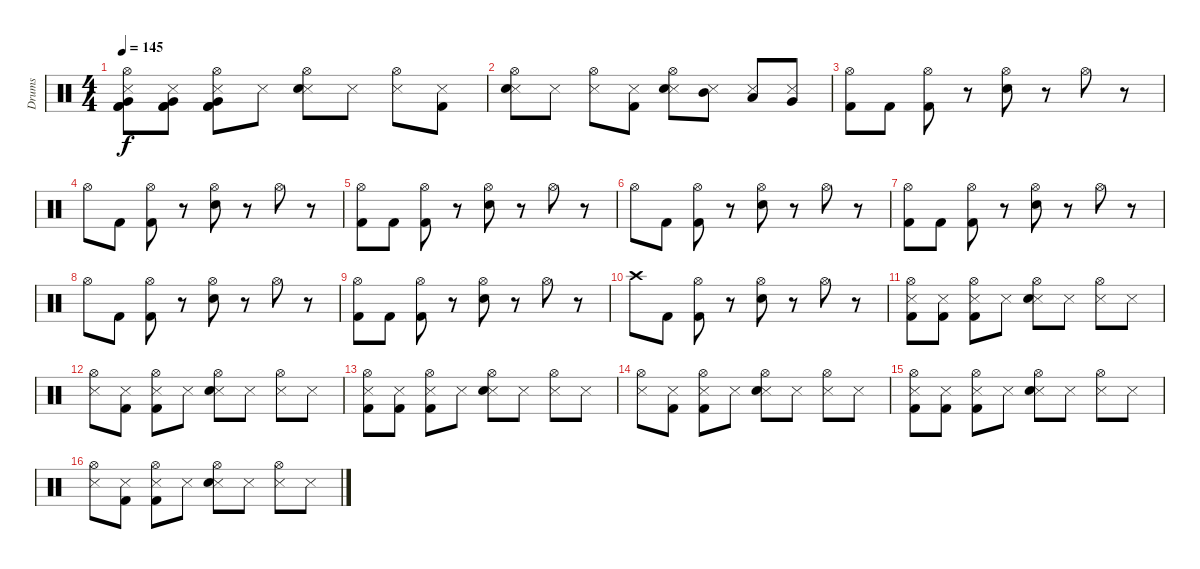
\track ("Drums" "Drums") {instrument percussion}
\staff {score}
\articulation defaults
\ts (4 4)
\tempo 145
\clef neutral
\ks c
("Hi-Hat (open)" "Snare (side stick) 3" "Very Low Tom (hit)" "Kick (hit) 2" "Kick (hit) 2").8{dy f} ("Snare (side stick) 3" "Very Low Tom (hit)" "Kick (hit) 2" "Kick (hit) 2").8 ("Hi-Hat (open)" "Snare (side stick) 3" "Very Low Tom (hit)" "Kick (hit) 2" "Kick (hit) 2").8 "Snare (side stick) 3".8 ("Hi-Hat (open)" "Snare (side stick) 3" "Electric Snare (hit)").8 "Snare (side stick) 3".8 ("Hi-Hat (open)" "Snare (side stick) 3").8 ("Snare (side stick) 3" "Kick (hit) 2").8 |
("Hi-Hat (open)" "Snare (side stick) 3" "Electric Snare (hit)").8 "Snare (side stick) 3".8 ("Hi-Hat (open)" "Snare (side stick) 3").8 ("Snare (side stick) 3" "Kick (hit) 2").8 ("Hi-Hat (open)" "Snare (side stick) 3" "Electric Snare (hit)").8 ("Snare (side stick) 3" "Mid Tom (hit)").8 ("Snare (side stick) 3" "Low Tom (hit)").8 ("Snare (side stick) 3" "Very Low Tom (hit)").8 |
("Hi-Hat (open)" "Kick (hit) 2").8 "Kick (hit) 2".8 ("Hi-Hat (open)" "Kick (hit) 2").8 r.8 ("Hi-Hat (open)" "Snare (hit) 2").8 r.8 "Hi-Hat (open)".8 r.8 |
"Hi-Hat (open)".8 "Kick (hit) 2".8 ("Hi-Hat (open)" "Kick (hit) 2").8 r.8 ("Hi-Hat (open)" "Snare (hit) 2").8 r.8 "Hi-Hat (open)".8 r.8 |
("Hi-Hat (open)" "Kick (hit) 2").8 "Kick (hit) 2".8 ("Hi-Hat (open)" "Kick (hit) 2").8 r.8 ("Hi-Hat (open)" "Snare (hit) 2").8 r.8 "Hi-Hat (open)".8 r.8 |
"Hi-Hat (open)".8 "Kick (hit) 2".8 ("Hi-Hat (open)" "Kick (hit) 2").8 r.8 ("Hi-Hat (open)" "Snare (hit) 2").8 r.8 "Hi-Hat (open)".8 r.8 |
("Hi-Hat (open)" "Kick (hit) 2").8 "Kick (hit) 2".8 ("Hi-Hat (open)" "Kick (hit) 2").8 r.8 ("Hi-Hat (open)" "Snare (hit) 2").8 r.8 "Hi-Hat (open)".8 r.8 |
"Hi-Hat (open)".8 "Kick (hit) 2".8 ("Hi-Hat (open)" "Kick (hit) 2").8 r.8 ("Hi-Hat (open)" "Snare (hit) 2").8 r.8 "Hi-Hat (open)".8 r.8 |
("Hi-Hat (open)" "Kick (hit) 2").8 "Kick (hit) 2".8 ("Hi-Hat (open)" "Kick (hit) 2").8 r.8 ("Hi-Hat (open)" "Snare (hit) 2").8 r.8 "Hi-Hat (open)".8 r.8 |
"Crash high (hit)".8 "Kick (hit) 2".8 ("Hi-Hat (open)" "Kick (hit) 2").8 r.8 ("Hi-Hat (open)" "Snare (hit) 2").8 r.8 "Hi-Hat (open)".8 r.8 |
("Hi-Hat (open)" "Snare (side stick) 3" "Kick (hit) 2").8 ("Snare (side stick) 3" "Kick (hit) 2").8 ("Hi-Hat (open)" "Snare (side stick) 3" "Kick (hit) 2").8 "Snare (side stick) 3".8 ("Hi-Hat (open)" "Snare (side stick) 3" "Snare (hit) 2").8 "Snare (side stick) 3".8 ("Hi-Hat (open)" "Snare (side stick) 3").8 "Snare (side stick) 3".8 |
("Hi-Hat (open)" "Snare (side stick) 3").8 ("Snare (side stick) 3" "Kick (hit) 2").8 ("Hi-Hat (open)" "Snare (side stick) 3" "Kick (hit) 2").8 "Snare (side stick) 3".8 ("Hi-Hat (open)" "Snare (side stick) 3" "Snare (hit) 2").8 "Snare (side stick) 3".8 ("Hi-Hat (open)" "Snare (side stick) 3").8 "Snare (side stick) 3".8 |
("Hi-Hat (open)" "Snare (side stick) 3" "Kick (hit) 2").8 ("Snare (side stick) 3" "Kick (hit) 2").8 ("Hi-Hat (open)" "Snare (side stick) 3" "Kick (hit) 2").8 "Snare (side stick) 3".8 ("Hi-Hat (open)" "Snare (side stick) 3" "Snare (hit) 2").8 "Snare (side stick) 3".8 ("Hi-Hat (open)" "Snare (side stick) 3").8 "Snare (side stick) 3".8 |
("Hi-Hat (open)" "Snare (side stick) 3").8 ("Snare (side stick) 3" "Kick (hit) 2").8 ("Hi-Hat (open)" "Snare (side stick) 3" "Kick (hit) 2").8 "Snare (side stick) 3".8 ("Hi-Hat (open)" "Snare (side stick) 3" "Snare (hit) 2").8 "Snare (side stick) 3".8 ("Hi-Hat (open)" "Snare (side stick) 3").8 "Snare (side stick) 3".8 |
("Hi-Hat (open)" "Snare (side stick) 3" "Kick (hit) 2").8 ("Snare (side stick) 3" "Kick (hit) 2").8 ("Hi-Hat (open)" "Snare (side stick) 3" "Kick (hit) 2").8 "Snare (side stick) 3".8 ("Hi-Hat (open)" "Snare (side stick) 3" "Snare (hit) 2").8 "Snare (side stick) 3".8 ("Hi-Hat (open)" "Snare (side stick) 3").8 "Snare (side stick) 3".8 |
("Hi-Hat (open)" "Snare (side stick) 3").8 ("Snare (side stick) 3" "Kick (hit) 2").8 ("Hi-Hat (open)" "Snare (side stick) 3" "Kick (hit) 2").8 "Snare (side stick) 3".8 ("Hi-Hat (open)" "Snare (side stick) 3" "Snare (hit) 2").8 "Snare (side stick) 3".8 ("Hi-Hat (open)" "Snare (side stick) 3").8 "Snare (side stick) 3".8
